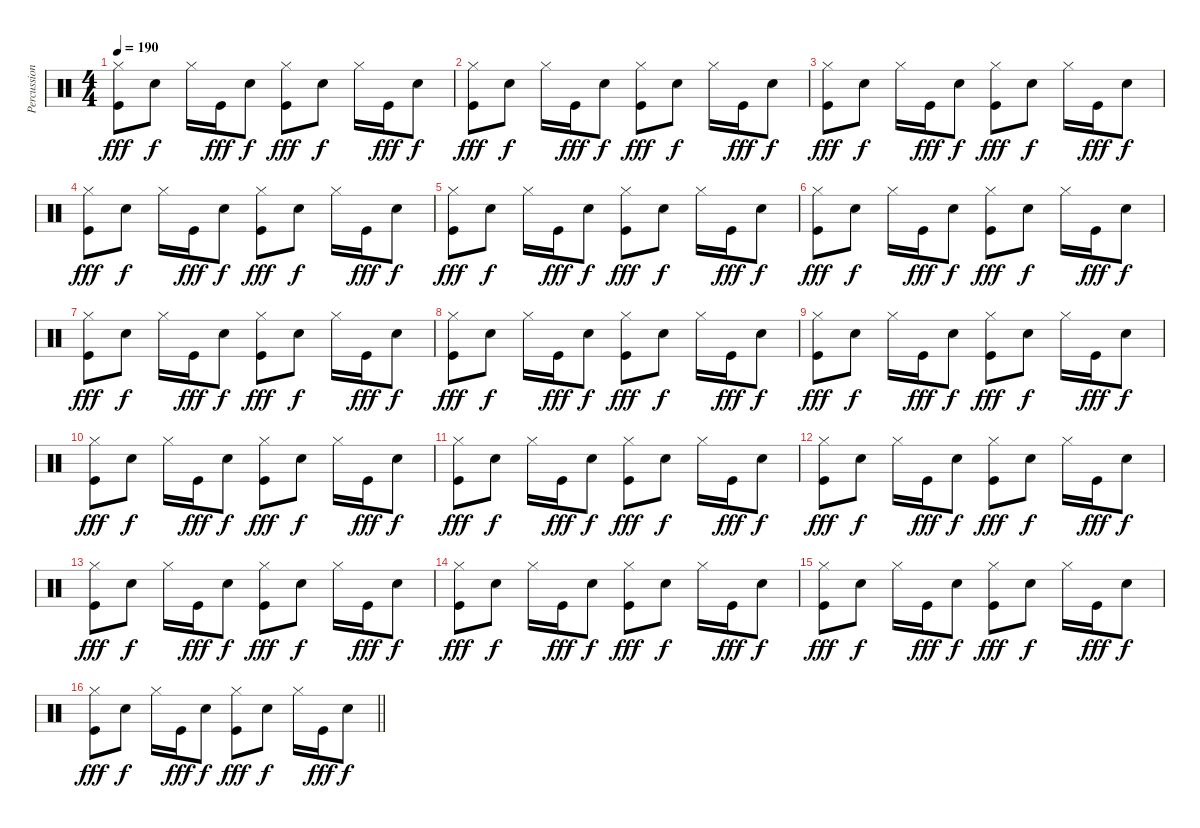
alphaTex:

\track ("Percussioni" "Percussion") {instrument percussion}
\staff {score}
\articulation defaults
\ts (4 4)
\tempo 190
\clef neutral
\ks c
("Kick (hit)" "Hi-Hat (closed)").8{dy fff} "Snare (hit) 2".8{dy f} "Hi-Hat (closed)".16 "Kick (hit)".16{dy fff} "Snare (hit) 2".8{dy f} ("Kick (hit)" "Hi-Hat (closed)").8{dy fff} "Snare (hit) 2".8{dy f} "Hi-Hat (closed)".16 "Kick (hit)".16{dy fff} "Snare (hit) 2".8{dy f} |
("Kick (hit)" "Hi-Hat (closed)").8{dy fff} "Snare (hit) 2".8{dy f} "Hi-Hat (closed)".16 "Kick (hit)".16{dy fff} "Snare (hit) 2".8{dy f} ("Kick (hit)" "Hi-Hat (closed)").8{dy fff} "Snare (hit) 2".8{dy f} "Hi-Hat (closed)".16 "Kick (hit)".16{dy fff} "Snare (hit) 2".8{dy f} |
("Kick (hit)" "Hi-Hat (closed)").8{dy fff} "Snare (hit) 2".8{dy f} "Hi-Hat (closed)".16 "Kick (hit)".16{dy fff} "Snare (hit) 2".8{dy f} ("Kick (hit)" "Hi-Hat (closed)").8{dy fff} "Snare (hit) 2".8{dy f} "Hi-Hat (closed)".16 "Kick (hit)".16{dy fff} "Snare (hit) 2".8{dy f} |
("Kick (hit)" "Hi-Hat (closed)").8{dy fff} "Snare (hit) 2".8{dy f} "Hi-Hat (closed)".16 "Kick (hit)".16{dy fff} "Snare (hit) 2".8{dy f} ("Kick (hit)" "Hi-Hat (closed)").8{dy fff} "Snare (hit) 2".8{dy f} "Hi-Hat (closed)".16 "Kick (hit)".16{dy fff} "Snare (hit) 2".8{dy f} |
("Kick (hit)" "Hi-Hat (closed)").8{dy fff} "Snare (hit) 2".8{dy f} "Hi-Hat (closed)".16 "Kick (hit)".16{dy fff} "Snare (hit) 2".8{dy f} ("Kick (hit)" "Hi-Hat (closed)").8{dy fff} "Snare (hit) 2".8{dy f} "Hi-Hat (closed)".16 "Kick (hit)".16{dy fff} "Snare (hit) 2".8{dy f} |
("Kick (hit)" "Hi-Hat (closed)").8{dy fff} "Snare (hit) 2".8{dy f} "Hi-Hat (closed)".16 "Kick (hit)".16{dy fff} "Snare (hit) 2".8{dy f} ("Kick (hit)" "Hi-Hat (closed)").8{dy fff} "Snare (hit) 2".8{dy f} "Hi-Hat (closed)".16 "Kick (hit)".16{dy fff} "Snare (hit) 2".8{dy f} |
("Kick (hit)" "Hi-Hat (closed)").8{dy fff} "Snare (hit) 2".8{dy f} "Hi-Hat (closed)".16 "Kick (hit)".16{dy fff} "Snare (hit) 2".8{dy f} ("Kick (hit)" "Hi-Hat (closed)").8{dy fff} "Snare (hit) 2".8{dy f} "Hi-Hat (closed)".16 "Kick (hit)".16{dy fff} "Snare (hit) 2".8{dy f} |
("Kick (hit)" "Hi-Hat (closed)").8{dy fff} "Snare (hit) 2".8{dy f} "Hi-Hat (closed)".16 "Kick (hit)".16{dy fff} "Snare (hit) 2".8{dy f} ("Kick (hit)" "Hi-Hat (closed)").8{dy fff} "Snare (hit) 2".8{dy f} "Hi-Hat (closed)".16 "Kick (hit)".16{dy fff} "Snare (hit) 2".8{dy f} |
("Kick (hit)" "Hi-Hat (closed)").8{dy fff} "Snare (hit) 2".8{dy f} "Hi-Hat (closed)".16 "Kick (hit)".16{dy fff} "Snare (hit) 2".8{dy f} ("Kick (hit)" "Hi-Hat (closed)").8{dy fff} "Snare (hit) 2".8{dy f} "Hi-Hat (closed)".16 "Kick (hit)".16{dy fff} "Snare (hit) 2".8{dy f} |
("Kick (hit)" "Hi-Hat (closed)").8{dy fff} "Snare (hit) 2".8{dy f} "Hi-Hat (closed)".16 "Kick (hit)".16{dy fff} "Snare (hit) 2".8{dy f} ("Kick (hit)" "Hi-Hat (closed)").8{dy fff} "Snare (hit) 2".8{dy f} "Hi-Hat (closed)".16 "Kick (hit)".16{dy fff} "Snare (hit) 2".8{dy f} |
("Kick (hit)" "Hi-Hat (closed)").8{dy fff} "Snare (hit) 2".8{dy f} "Hi-Hat (closed)".16 "Kick (hit)".16{dy fff} "Snare (hit) 2".8{dy f} ("Kick (hit)" "Hi-Hat (closed)").8{dy fff} "Snare (hit) 2".8{dy f} "Hi-Hat (closed)".16 "Kick (hit)".16{dy fff} "Snare (hit) 2".8{dy f} |
("Kick (hit)" "Hi-Hat (closed)").8{dy fff} "Snare (hit) 2".8{dy f} "Hi-Hat (closed)".16 "Kick (hit)".16{dy fff} "Snare (hit) 2".8{dy f} ("Kick (hit)" "Hi-Hat (closed)").8{dy fff} "Snare (hit) 2".8{dy f} "Hi-Hat (closed)".16 "Kick (hit)".16{dy fff} "Snare (hit) 2".8{dy f} |
("Kick (hit)" "Hi-Hat (closed)").8{dy fff} "Snare (hit) 2".8{dy f} "Hi-Hat (closed)".16 "Kick (hit)".16{dy fff} "Snare (hit) 2".8{dy f} ("Kick (hit)" "Hi-Hat (closed)").8{dy fff} "Snare (hit) 2".8{dy f} "Hi-Hat (closed)".16 "Kick (hit)".16{dy fff} "Snare (hit) 2".8{dy f} |
("Kick (hit)" "Hi-Hat (closed)").8{dy fff} "Snare (hit) 2".8{dy f} "Hi-Hat (closed)".16 "Kick (hit)".16{dy fff} "Snare (hit) 2".8{dy f} ("Kick (hit)" "Hi-Hat (closed)").8{dy fff} "Snare (hit) 2".8{dy f} "Hi-Hat (closed)".16 "Kick (hit)".16{dy fff} "Snare (hit) 2".8{dy f} |
("Kick (hit)" "Hi-Hat (closed)").8{dy fff} "Snare (hit) 2".8{dy f} "Hi-Hat (closed)".16 "Kick (hit)".16{dy fff} "Snare (hit) 2".8{dy f} ("Kick (hit)" "Hi-Hat (closed)").8{dy fff} "Snare (hit) 2".8{dy f} "Hi-Hat (closed)".16 "Kick (hit)".16{dy fff} "Snare (hit) 2".8{dy f} |
\barLineRight lightlight
("Kick (hit)" "Hi-Hat (closed)").8{dy fff} "Snare (hit) 2".8{dy f} "Hi-Hat (closed)".16 "Kick (hit)".16{dy fff} "Snare (hit) 2".8{dy f} ("Kick (hit)" "Hi-Hat (closed)").8{dy fff} "Snare (hit) 2".8{dy f} "Hi-Hat (closed)".16 "Kick (hit)".16{dy fff} "Snare (hit) 2".8{dy f}
